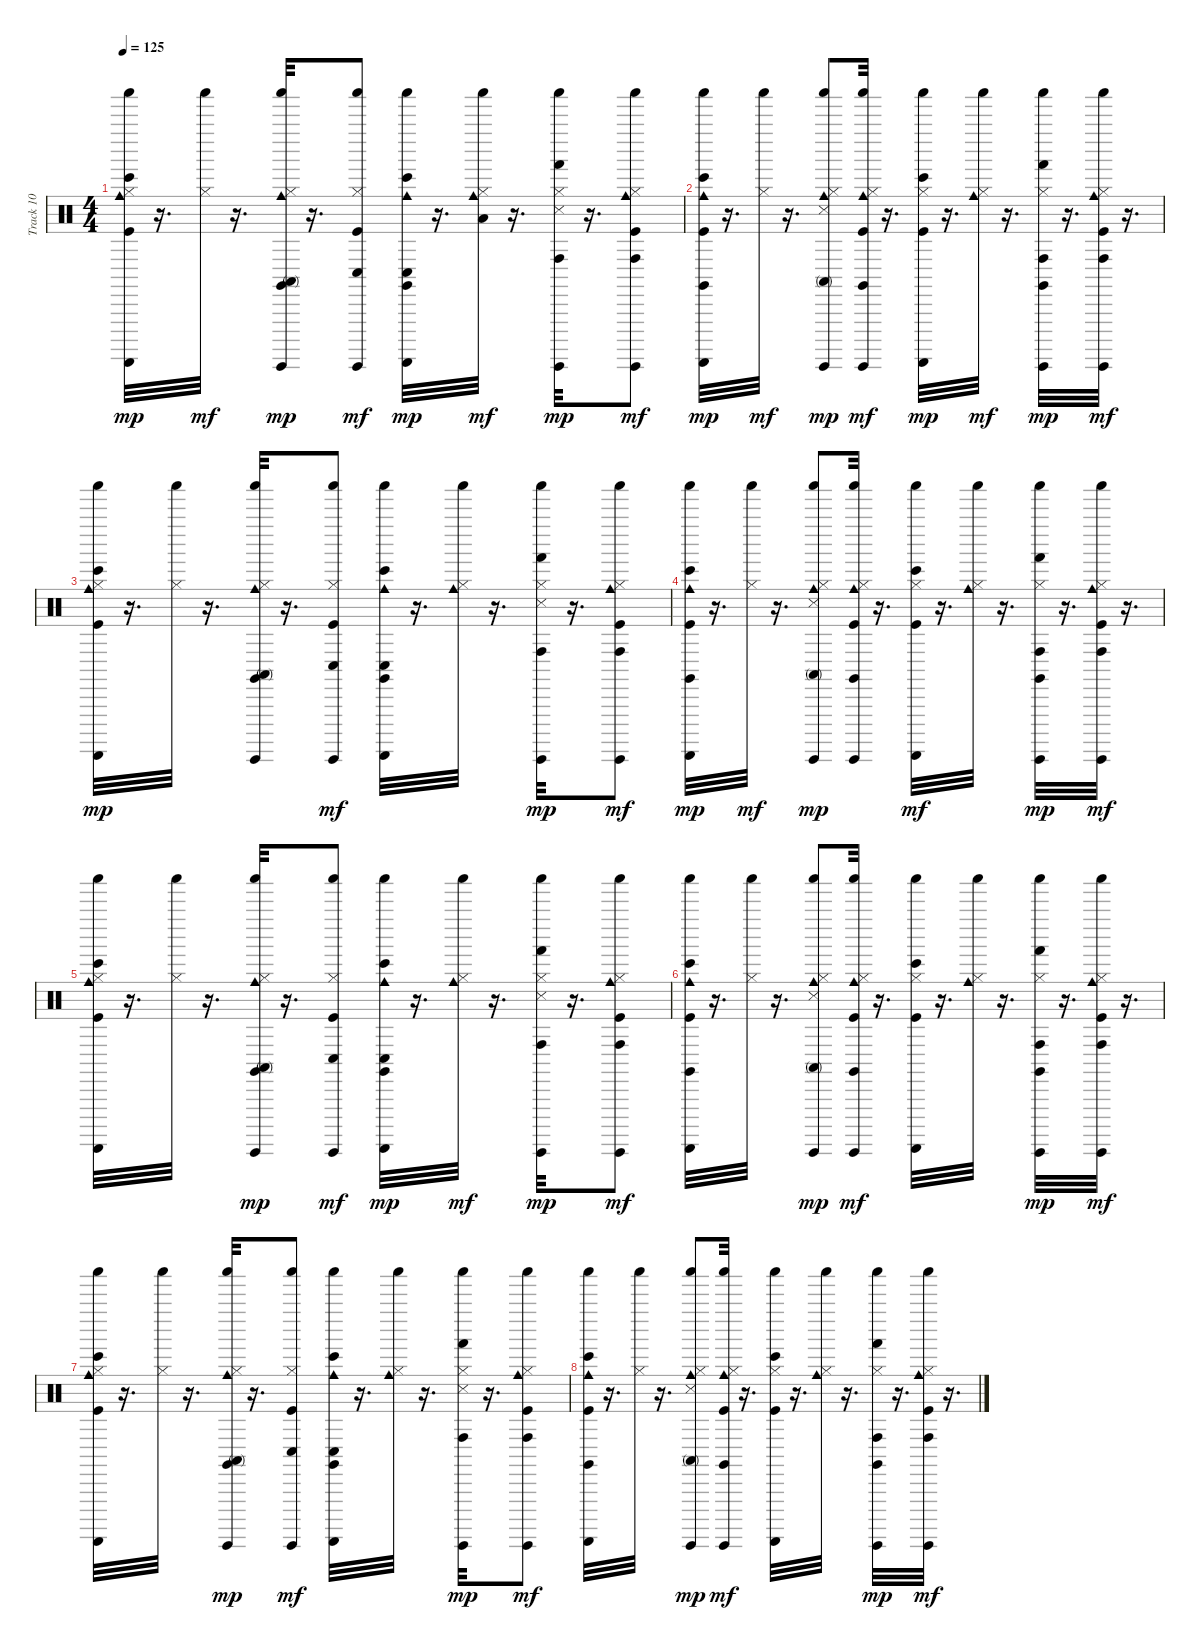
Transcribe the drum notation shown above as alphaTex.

\track ("Track 10" "Track 10") {instrument percussion}
\staff {score}
\articulation defaults
\ts (4 4)
\tempo 125
\clef neutral
\ks c
("Shaker (hit)" "Bongo High (hit)" "Cowbell medium (hit)" "Guiro (scrap-return)" "Kick (hit)" "Hi-Hat (closed)").32{dy mp} r.16{d} ("Shaker (hit)" "Hi-Hat (closed)").32{dy mf} r.16{d} ("Shaker (hit)" "Claves (hit)" "Conga high (mute)" "Cowbell medium (hit)" "Guiro (hit)" "Hi-Hat (closed)").32{dy mp} r.16{d} ("Shaker (hit)" "Conga low (hit)" "Guiro (hit)" "Kick (hit)" "Hi-Hat (closed)").8{dy mf} ("Shaker (hit)" "Claves (hit)" "Conga low (hit)" "Bongo High (hit)" "Cowbell medium (hit)" "Guiro (scrap-return)").32{dy mp} r.16{d} ("Low Tom (hit)" "Shaker (hit)" "Cowbell medium (hit)" "Hi-Hat (closed)").32{dy mf} r.16{d} ("Shaker (hit)" "Conga high (hit)" "Hand (hit)" "Guiro (hit)" "Hi-Hat (closed)" "Snare (side stick) 3").32{dy mp} r.16{d} ("Shaker (hit)" "Conga high (hit)" "Cowbell medium (hit)" "Guiro (hit)" "Kick (hit)" "Hi-Hat (closed)").8{dy mf} |
("Shaker (hit)" "Claves (hit)" "Bongo High (hit)" "Cowbell medium (hit)" "Guiro (scrap-return)" "Kick (hit)").32{dy mp} r.16{d} ("Shaker (hit)" "Hi-Hat (closed)").32{dy mf} r.16{d} ("Shaker (hit)" "Conga high (mute)" "Cowbell medium (hit)" "Guiro (hit)" "Hi-Hat (closed)" "Snare (side stick) 3").8{dy mp} ("Shaker (hit)" "Claves (hit)" "Cowbell medium (hit)" "Guiro (hit)" "Kick (hit)" "Hi-Hat (closed)").32{dy mf} r.16{d} ("Shaker (hit)" "Bongo High (hit)" "Guiro (scrap-return)" "Kick (hit)" "Hi-Hat (closed)").32{dy mp} r.16{d} ("Shaker (hit)" "Cowbell medium (hit)" "Hi-Hat (closed)").32{dy mf} r.16{d} ("Shaker (hit)" "Claves (hit)" "Conga high (hit)" "Hand (hit)" "Guiro (hit)" "Hi-Hat (closed)").32{dy mp} r.16{d} ("Shaker (hit)" "Conga high (hit)" "Cowbell medium (hit)" "Guiro (hit)" "Kick (hit)" "Hi-Hat (closed)").32{dy mf} r.16{d} |
("Shaker (hit)" "Bongo High (hit)" "Cowbell medium (hit)" "Guiro (scrap-return)" "Kick (hit)" "Hi-Hat (closed)").32{dy mp} r.16{d} ("Shaker (hit)" "Hi-Hat (closed)").32 r.16{d} ("Shaker (hit)" "Claves (hit)" "Conga high (mute)" "Cowbell medium (hit)" "Guiro (hit)" "Hi-Hat (closed)").32 r.16{d} ("Shaker (hit)" "Conga low (hit)" "Guiro (hit)" "Kick (hit)" "Hi-Hat (closed)").8{dy mf} ("Shaker (hit)" "Claves (hit)" "Conga low (hit)" "Bongo High (hit)" "Cowbell medium (hit)" "Guiro (scrap-return)").32 r.16{d} ("Shaker (hit)" "Cowbell medium (hit)" "Hi-Hat (closed)").32 r.16{d} ("Shaker (hit)" "Conga high (hit)" "Hand (hit)" "Guiro (hit)" "Hi-Hat (closed)" "Snare (side stick) 3").32{dy mp} r.16{d} ("Shaker (hit)" "Conga high (hit)" "Cowbell medium (hit)" "Guiro (hit)" "Kick (hit)" "Hi-Hat (closed)").8{dy mf} |
("Shaker (hit)" "Claves (hit)" "Bongo High (hit)" "Cowbell medium (hit)" "Guiro (scrap-return)" "Kick (hit)").32{dy mp} r.16{d} ("Shaker (hit)" "Hi-Hat (closed)").32{dy mf} r.16{d} ("Shaker (hit)" "Conga high (mute)" "Cowbell medium (hit)" "Guiro (hit)" "Hi-Hat (closed)" "Snare (side stick) 3").8{dy mp} ("Shaker (hit)" "Claves (hit)" "Cowbell medium (hit)" "Guiro (hit)" "Kick (hit)" "Hi-Hat (closed)").32 r.16{d} ("Shaker (hit)" "Bongo High (hit)" "Guiro (scrap-return)" "Kick (hit)" "Hi-Hat (closed)").32{dy mf} r.16{d} ("Shaker (hit)" "Cowbell medium (hit)" "Hi-Hat (closed)").32 r.16{d} ("Shaker (hit)" "Claves (hit)" "Conga high (hit)" "Hand (hit)" "Guiro (hit)" "Hi-Hat (closed)").32{dy mp} r.16{d} ("Shaker (hit)" "Conga high (hit)" "Cowbell medium (hit)" "Guiro (hit)" "Kick (hit)" "Hi-Hat (closed)").32{dy mf} r.16{d} |
("Shaker (hit)" "Bongo High (hit)" "Cowbell medium (hit)" "Guiro (scrap-return)" "Kick (hit)" "Hi-Hat (closed)").32 r.16{d} ("Shaker (hit)" "Hi-Hat (closed)").32 r.16{d} ("Shaker (hit)" "Claves (hit)" "Conga high (mute)" "Cowbell medium (hit)" "Guiro (hit)" "Hi-Hat (closed)").32{dy mp} r.16{d} ("Shaker (hit)" "Conga low (hit)" "Guiro (hit)" "Kick (hit)" "Hi-Hat (closed)").8{dy mf} ("Shaker (hit)" "Claves (hit)" "Conga low (hit)" "Bongo High (hit)" "Cowbell medium (hit)" "Guiro (scrap-return)").32{dy mp} r.16{d} ("Shaker (hit)" "Cowbell medium (hit)" "Hi-Hat (closed)").32{dy mf} r.16{d} ("Shaker (hit)" "Conga high (hit)" "Hand (hit)" "Guiro (hit)" "Hi-Hat (closed)" "Snare (side stick) 3").32{dy mp} r.16{d} ("Shaker (hit)" "Conga high (hit)" "Cowbell medium (hit)" "Guiro (hit)" "Kick (hit)" "Hi-Hat (closed)").8{dy mf} |
("Shaker (hit)" "Claves (hit)" "Bongo High (hit)" "Cowbell medium (hit)" "Guiro (scrap-return)" "Kick (hit)").32 r.16{d} ("Shaker (hit)" "Hi-Hat (closed)").32 r.16{d} ("Shaker (hit)" "Conga high (mute)" "Cowbell medium (hit)" "Guiro (hit)" "Hi-Hat (closed)" "Snare (side stick) 3").8{dy mp} ("Shaker (hit)" "Claves (hit)" "Cowbell medium (hit)" "Guiro (hit)" "Kick (hit)" "Hi-Hat (closed)").32{dy mf} r.16{d} ("Shaker (hit)" "Bongo High (hit)" "Guiro (scrap-return)" "Kick (hit)" "Hi-Hat (closed)").32 r.16{d} ("Shaker (hit)" "Cowbell medium (hit)" "Hi-Hat (closed)").32 r.16{d} ("Shaker (hit)" "Claves (hit)" "Conga high (hit)" "Hand (hit)" "Guiro (hit)" "Hi-Hat (closed)").32{dy mp} r.16{d} ("Shaker (hit)" "Conga high (hit)" "Cowbell medium (hit)" "Guiro (hit)" "Kick (hit)" "Hi-Hat (closed)").32{dy mf} r.16{d} |
("Shaker (hit)" "Bongo High (hit)" "Cowbell medium (hit)" "Guiro (scrap-return)" "Kick (hit)" "Hi-Hat (closed)").32 r.16{d} ("Shaker (hit)" "Hi-Hat (closed)").32 r.16{d} ("Shaker (hit)" "Claves (hit)" "Conga high (mute)" "Cowbell medium (hit)" "Guiro (hit)" "Hi-Hat (closed)").32{dy mp} r.16{d} ("Shaker (hit)" "Conga low (hit)" "Guiro (hit)" "Kick (hit)" "Hi-Hat (closed)").8{dy mf} ("Shaker (hit)" "Claves (hit)" "Conga low (hit)" "Bongo High (hit)" "Cowbell medium (hit)" "Guiro (scrap-return)").32 r.16{d} ("Shaker (hit)" "Cowbell medium (hit)" "Hi-Hat (closed)").32 r.16{d} ("Shaker (hit)" "Conga high (hit)" "Hand (hit)" "Guiro (hit)" "Hi-Hat (closed)" "Snare (side stick) 3").32{dy mp} r.16{d} ("Shaker (hit)" "Conga high (hit)" "Cowbell medium (hit)" "Guiro (hit)" "Kick (hit)" "Hi-Hat (closed)").8{dy mf} |
("Shaker (hit)" "Claves (hit)" "Bongo High (hit)" "Cowbell medium (hit)" "Guiro (scrap-return)" "Kick (hit)").32 r.16{d} ("Shaker (hit)" "Hi-Hat (closed)").32 r.16{d} ("Shaker (hit)" "Conga high (mute)" "Cowbell medium (hit)" "Guiro (hit)" "Hi-Hat (closed)" "Snare (side stick) 3").8{dy mp} ("Shaker (hit)" "Claves (hit)" "Cowbell medium (hit)" "Guiro (hit)" "Kick (hit)" "Hi-Hat (closed)").32{dy mf} r.16{d} ("Shaker (hit)" "Bongo High (hit)" "Guiro (scrap-return)" "Kick (hit)" "Hi-Hat (closed)").32 r.16{d} ("Shaker (hit)" "Cowbell medium (hit)" "Hi-Hat (closed)").32 r.16{d} ("Shaker (hit)" "Claves (hit)" "Conga high (hit)" "Hand (hit)" "Guiro (hit)" "Hi-Hat (closed)").32{dy mp} r.16{d} ("Shaker (hit)" "Conga high (hit)" "Cowbell medium (hit)" "Guiro (hit)" "Kick (hit)" "Hi-Hat (closed)").32{dy mf} r.16{d}
